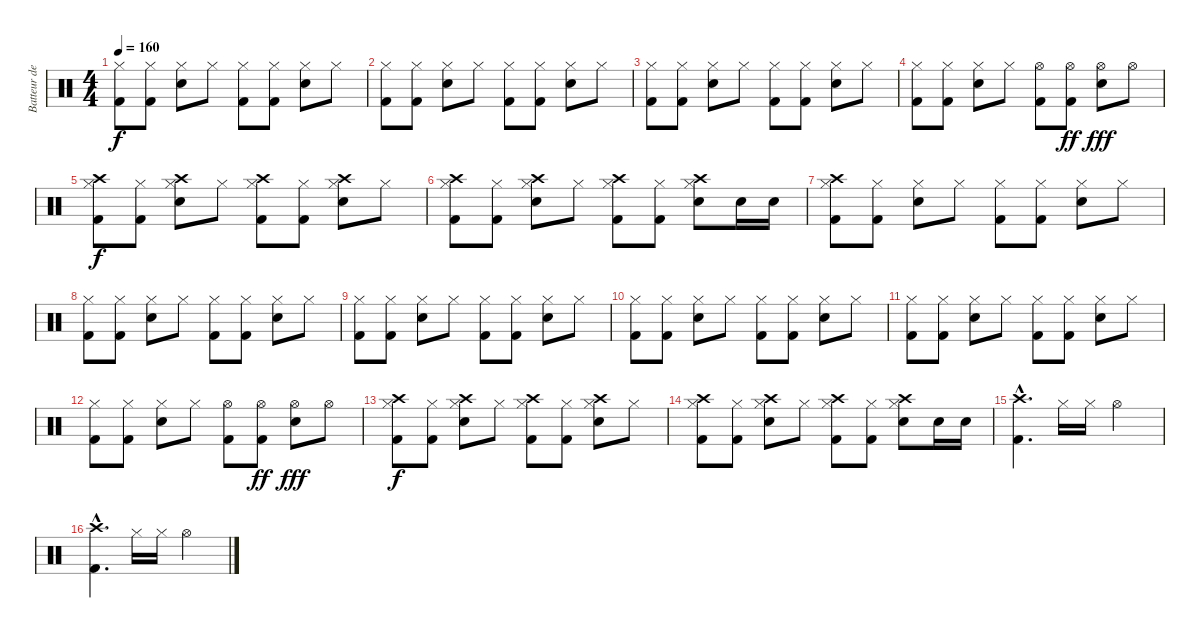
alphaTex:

\track ("Batteur de G.C" "Batteur de") {instrument percussion}
\staff {score}
\articulation defaults
\ts (4 4)
\tempo 160
\clef neutral
\ks c
("Hi-Hat (closed)" "Kick (hit) 2").8{dy f} ("Hi-Hat (closed)" "Kick (hit) 2").8 ("Hi-Hat (closed)" "Electric Snare (hit)").8 "Hi-Hat (closed)".8 ("Hi-Hat (closed)" "Kick (hit) 2").8 ("Hi-Hat (closed)" "Kick (hit) 2").8 ("Hi-Hat (closed)" "Electric Snare (hit)").8 "Hi-Hat (closed)".8 |
("Hi-Hat (closed)" "Kick (hit) 2").8 ("Hi-Hat (closed)" "Kick (hit) 2").8 ("Hi-Hat (closed)" "Electric Snare (hit)").8 "Hi-Hat (closed)".8 ("Hi-Hat (closed)" "Kick (hit) 2").8 ("Hi-Hat (closed)" "Kick (hit) 2").8 ("Hi-Hat (closed)" "Electric Snare (hit)").8 "Hi-Hat (closed)".8 |
("Hi-Hat (closed)" "Kick (hit) 2").8 ("Hi-Hat (closed)" "Kick (hit) 2").8 ("Hi-Hat (closed)" "Electric Snare (hit)").8 "Hi-Hat (closed)".8 ("Hi-Hat (closed)" "Kick (hit) 2").8 ("Hi-Hat (closed)" "Kick (hit) 2").8 ("Hi-Hat (closed)" "Electric Snare (hit)").8 "Hi-Hat (closed)".8 |
("Hi-Hat (closed)" "Kick (hit) 2").8 ("Hi-Hat (closed)" "Kick (hit) 2").8 ("Hi-Hat (closed)" "Electric Snare (hit)").8 "Hi-Hat (closed)".8 ("Hi-Hat (open)" "Kick (hit) 2").8 ("Hi-Hat (open)" "Kick (hit) 2").8{dy ff} ("Hi-Hat (open)" "Electric Snare (hit)").8{dy fff} "Hi-Hat (open)".8 |
("Crash high (hit)" "Hi-Hat (closed)" "Kick (hit) 2").8{dy f} ("Hi-Hat (closed)" "Kick (hit) 2").8 ("Crash high (hit)" "Hi-Hat (closed)" "Electric Snare (hit)").8 "Hi-Hat (closed)".8 ("Crash high (hit)" "Hi-Hat (closed)" "Kick (hit) 2").8 ("Hi-Hat (closed)" "Kick (hit) 2").8 ("Crash high (hit)" "Hi-Hat (closed)" "Electric Snare (hit)").8 "Hi-Hat (closed)".8 |
("Crash high (hit)" "Hi-Hat (closed)" "Kick (hit) 2").8 ("Hi-Hat (closed)" "Kick (hit) 2").8 ("Crash high (hit)" "Hi-Hat (closed)" "Electric Snare (hit)").8 "Hi-Hat (closed)".8 ("Crash high (hit)" "Hi-Hat (closed)" "Kick (hit) 2").8 ("Hi-Hat (closed)" "Kick (hit) 2").8 ("Crash high (hit)" "Hi-Hat (closed)" "Electric Snare (hit)").8 "Electric Snare (hit)".16 "Electric Snare (hit)".16 |
("Crash high (hit)" "Hi-Hat (closed)" "Kick (hit) 2").8 ("Hi-Hat (closed)" "Kick (hit) 2").8 ("Hi-Hat (closed)" "Electric Snare (hit)").8 "Hi-Hat (closed)".8 ("Hi-Hat (closed)" "Kick (hit) 2").8 ("Hi-Hat (closed)" "Kick (hit) 2").8 ("Hi-Hat (closed)" "Electric Snare (hit)").8 "Hi-Hat (closed)".8 |
("Hi-Hat (closed)" "Kick (hit) 2").8 ("Hi-Hat (closed)" "Kick (hit) 2").8 ("Hi-Hat (closed)" "Electric Snare (hit)").8 "Hi-Hat (closed)".8 ("Hi-Hat (closed)" "Kick (hit) 2").8 ("Hi-Hat (closed)" "Kick (hit) 2").8 ("Hi-Hat (closed)" "Electric Snare (hit)").8 "Hi-Hat (closed)".8 |
("Hi-Hat (closed)" "Kick (hit) 2").8 ("Hi-Hat (closed)" "Kick (hit) 2").8 ("Hi-Hat (closed)" "Electric Snare (hit)").8 "Hi-Hat (closed)".8 ("Hi-Hat (closed)" "Kick (hit) 2").8 ("Hi-Hat (closed)" "Kick (hit) 2").8 ("Hi-Hat (closed)" "Electric Snare (hit)").8 "Hi-Hat (closed)".8 |
("Hi-Hat (closed)" "Kick (hit) 2").8 ("Hi-Hat (closed)" "Kick (hit) 2").8 ("Hi-Hat (closed)" "Electric Snare (hit)").8 "Hi-Hat (closed)".8 ("Hi-Hat (closed)" "Kick (hit) 2").8 ("Hi-Hat (closed)" "Kick (hit) 2").8 ("Hi-Hat (closed)" "Electric Snare (hit)").8 "Hi-Hat (closed)".8 |
("Hi-Hat (closed)" "Kick (hit) 2").8 ("Hi-Hat (closed)" "Kick (hit) 2").8 ("Hi-Hat (closed)" "Electric Snare (hit)").8 "Hi-Hat (closed)".8 ("Hi-Hat (closed)" "Kick (hit) 2").8 ("Hi-Hat (closed)" "Kick (hit) 2").8 ("Hi-Hat (closed)" "Electric Snare (hit)").8 "Hi-Hat (closed)".8 |
("Hi-Hat (closed)" "Kick (hit) 2").8 ("Hi-Hat (closed)" "Kick (hit) 2").8 ("Hi-Hat (closed)" "Electric Snare (hit)").8 "Hi-Hat (closed)".8 ("Hi-Hat (open)" "Kick (hit) 2").8 ("Hi-Hat (open)" "Kick (hit) 2").8{dy ff} ("Hi-Hat (open)" "Electric Snare (hit)").8{dy fff} "Hi-Hat (open)".8 |
("Crash high (hit)" "Hi-Hat (closed)" "Kick (hit) 2").8{dy f} ("Hi-Hat (closed)" "Kick (hit) 2").8 ("Crash high (hit)" "Hi-Hat (closed)" "Electric Snare (hit)").8 "Hi-Hat (closed)".8 ("Crash high (hit)" "Hi-Hat (closed)" "Kick (hit) 2").8 ("Hi-Hat (closed)" "Kick (hit) 2").8 ("Crash high (hit)" "Hi-Hat (closed)" "Electric Snare (hit)").8 "Hi-Hat (closed)".8 |
("Crash high (hit)" "Hi-Hat (closed)" "Kick (hit) 2").8 ("Hi-Hat (closed)" "Kick (hit) 2").8 ("Crash high (hit)" "Hi-Hat (closed)" "Electric Snare (hit)").8 "Hi-Hat (closed)".8 ("Crash high (hit)" "Hi-Hat (closed)" "Kick (hit) 2").8 ("Hi-Hat (closed)" "Kick (hit) 2").8 ("Crash high (hit)" "Hi-Hat (closed)" "Electric Snare (hit)").8 "Electric Snare (hit)".16 "Electric Snare (hit)".16 |
("Crash high (hit)"{hac} "Kick (hit) 2"{hac}).4{d} "Hi-Hat (closed)".16 "Hi-Hat (closed)".16 "Hi-Hat (open)".2 |
("Crash high (hit)"{hac} "Kick (hit) 2"{hac}).4{d} "Hi-Hat (closed)".16 "Hi-Hat (closed)".16 "Hi-Hat (open)".2
